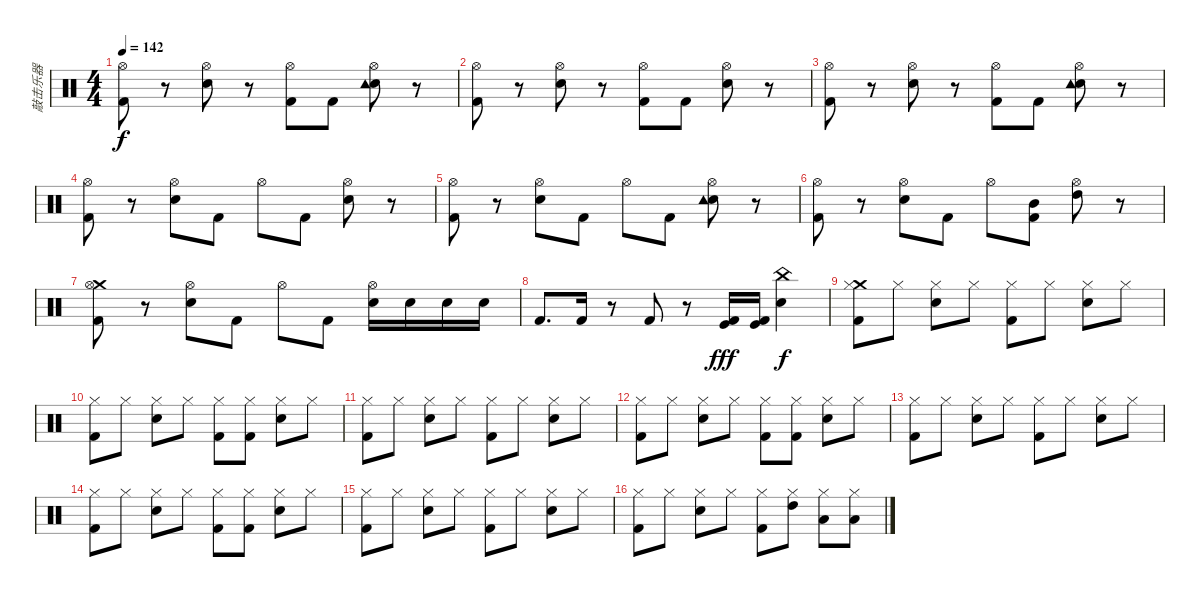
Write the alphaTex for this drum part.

\track ("敲击乐器" "敲击乐器") {instrument percussion}
\staff {score}
\articulation defaults
\ts (4 4)
\tempo 142
\clef neutral
\ks c
("Hi-Hat (open)" "Kick (hit) 2").8{dy f} r.8 ("Snare (hit) 2" "Hi-Hat (open)").8 r.8 ("Hi-Hat (open)" "Kick (hit) 2").8 "Kick (hit) 2".8 ("Snare (hit) 2" "Tambourine (hit)" "Hi-Hat (open)").8 r.8 |
("Hi-Hat (open)" "Kick (hit) 2").8 r.8 ("Snare (hit) 2" "Hi-Hat (open)").8 r.8 ("Hi-Hat (open)" "Kick (hit) 2").8 "Kick (hit) 2".8 ("Snare (hit) 2" "Hi-Hat (open)").8 r.8 |
("Hi-Hat (open)" "Kick (hit) 2").8 r.8 ("Snare (hit) 2" "Hi-Hat (open)").8 r.8 ("Hi-Hat (open)" "Kick (hit) 2").8 "Kick (hit) 2".8 ("Snare (hit) 2" "Tambourine (hit)" "Hi-Hat (open)").8 r.8 |
("Hi-Hat (open)" "Kick (hit) 2").8 r.8 ("Snare (hit) 2" "Hi-Hat (open)").8 "Kick (hit) 2".8 "Hi-Hat (open)".8 "Kick (hit) 2".8 ("Snare (hit) 2" "Hi-Hat (open)").8 r.8 |
("Hi-Hat (open)" "Kick (hit) 2").8 r.8 ("Snare (hit) 2" "Hi-Hat (open)").8 "Kick (hit) 2".8 "Hi-Hat (open)".8 "Kick (hit) 2".8 ("Snare (hit) 2" "Tambourine (hit)" "Hi-Hat (open)").8 r.8 |
("Hi-Hat (open)" "Kick (hit) 2").8 r.8 ("Snare (hit) 2" "Hi-Hat (open)").8 "Kick (hit) 2".8 "Hi-Hat (open)".8 ("Mid Tom (hit)" "Kick (hit) 2").8 ("High Tom (hit)" "Hi-Hat (open)").8 r.8 |
("Crash medium (hit)" "Hi-Hat (open)" "Kick (hit) 2").8 r.8 ("Snare (hit) 2" "Hi-Hat (open)").8 "Kick (hit) 2".8 "Hi-Hat (open)".8 "Kick (hit) 2".8 ("Snare (hit) 2" "Hi-Hat (open)").16 "Snare (hit) 2".16 "Snare (hit) 2".16 "Snare (hit) 2".16 |
"Kick (hit) 2".8{d} "Kick (hit) 2".16 r.8 "Kick (hit) 2".8 r.8 ("Kick (hit)" "Kick (hit) 2").16{dy fff} ("Kick (hit)" "Kick (hit) 2").16 ("Snare (hit) 2" "China (hit)").4{dy f} |
("Crash medium (hit)" "Hi-Hat (closed)" "Kick (hit) 2").8 "Hi-Hat (closed)".8 ("Snare (hit) 2" "Hi-Hat (closed)").8 "Hi-Hat (closed)".8 ("Hi-Hat (closed)" "Kick (hit) 2").8 "Hi-Hat (closed)".8 ("Snare (hit) 2" "Hi-Hat (closed)").8 "Hi-Hat (closed)".8 |
("Hi-Hat (closed)" "Kick (hit) 2").8 "Hi-Hat (closed)".8 ("Snare (hit) 2" "Hi-Hat (closed)").8 "Hi-Hat (closed)".8 ("Hi-Hat (closed)" "Kick (hit) 2").8 ("Hi-Hat (closed)" "Kick (hit) 2").8 ("Snare (hit) 2" "Hi-Hat (closed)").8 "Hi-Hat (closed)".8 |
("Hi-Hat (closed)" "Kick (hit) 2").8 "Hi-Hat (closed)".8 ("Snare (hit) 2" "Hi-Hat (closed)").8 "Hi-Hat (closed)".8 ("Hi-Hat (closed)" "Kick (hit) 2").8 "Hi-Hat (closed)".8 ("Snare (hit) 2" "Hi-Hat (closed)").8 "Hi-Hat (closed)".8 |
("Hi-Hat (closed)" "Kick (hit) 2").8 "Hi-Hat (closed)".8 ("Snare (hit) 2" "Hi-Hat (closed)").8 "Hi-Hat (closed)".8 ("Hi-Hat (closed)" "Kick (hit) 2").8 ("Hi-Hat (closed)" "Kick (hit) 2").8 ("Snare (hit) 2" "Hi-Hat (closed)").8 "Hi-Hat (closed)".8 |
("Hi-Hat (closed)" "Kick (hit) 2").8 "Hi-Hat (closed)".8 ("Snare (hit) 2" "Hi-Hat (closed)").8 "Hi-Hat (closed)".8 ("Hi-Hat (closed)" "Kick (hit) 2").8 "Hi-Hat (closed)".8 ("Snare (hit) 2" "Hi-Hat (closed)").8 "Hi-Hat (closed)".8 |
("Hi-Hat (closed)" "Kick (hit) 2").8 "Hi-Hat (closed)".8 ("Snare (hit) 2" "Hi-Hat (closed)").8 "Hi-Hat (closed)".8 ("Hi-Hat (closed)" "Kick (hit) 2").8 ("Hi-Hat (closed)" "Kick (hit) 2").8 ("Snare (hit) 2" "Hi-Hat (closed)").8 "Hi-Hat (closed)".8 |
("Hi-Hat (closed)" "Kick (hit) 2").8 "Hi-Hat (closed)".8 ("Snare (hit) 2" "Hi-Hat (closed)").8 "Hi-Hat (closed)".8 ("Hi-Hat (closed)" "Kick (hit) 2").8 "Hi-Hat (closed)".8 ("Snare (hit) 2" "Hi-Hat (closed)").8 "Hi-Hat (closed)".8 |
("Hi-Hat (closed)" "Kick (hit) 2").8 "Hi-Hat (closed)".8 ("Snare (hit) 2" "Hi-Hat (closed)").8 "Hi-Hat (closed)".8 ("Hi-Hat (closed)" "Kick (hit) 2").8 ("High Tom (hit)" "Hi-Hat (closed)").8 ("Low Tom (hit)" "Hi-Hat (closed)").8 ("Low Floor Tom (hit)" "Hi-Hat (closed)").8
